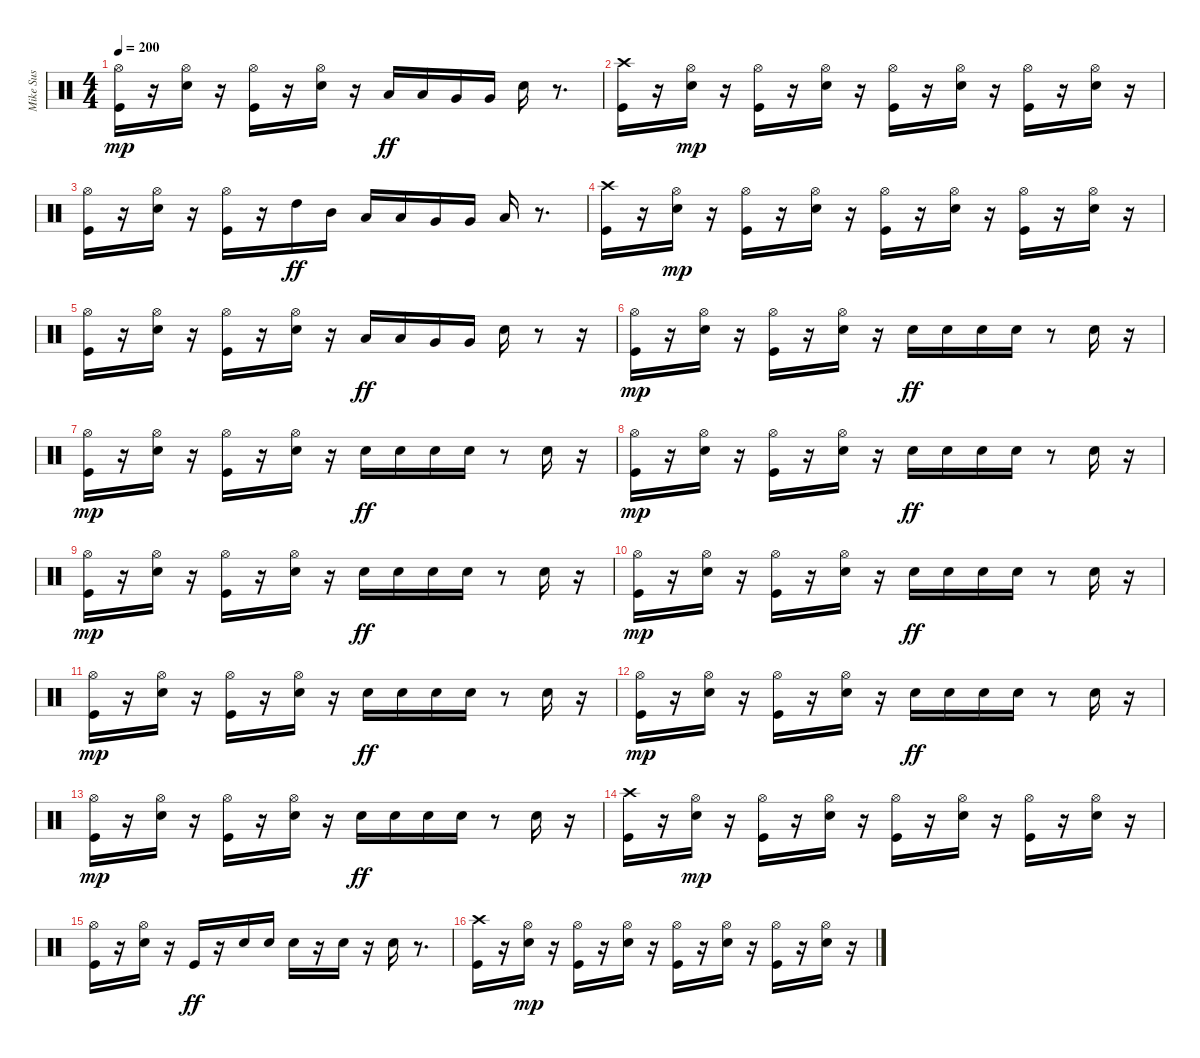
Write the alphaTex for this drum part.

\track ("Mike Sus" "Mike Sus") {instrument percussion}
\staff {score}
\articulation defaults
\ts (4 4)
\tempo 200
\clef neutral
\ks c
("Kick (hit)" "Hi-Hat (open)").16{dy mp} r.16 ("Snare (hit) 2" "Hi-Hat (open)").16 r.16 ("Kick (hit)" "Hi-Hat (open)").16 r.16 ("Snare (hit) 2" "Hi-Hat (open)").16 r.16 "Low Tom (hit)".16{dy ff} "Low Tom (hit)".16 "Very Low Tom (hit)".16 "Very Low Tom (hit)".16 "Snare (hit) 2".16 r.8{d} |
("Kick (hit)" "Crash high (hit)").16 r.16 ("Snare (hit) 2" "Hi-Hat (open)").16{dy mp} r.16 ("Kick (hit)" "Hi-Hat (open)").16 r.16 ("Snare (hit) 2" "Hi-Hat (open)").16 r.16 ("Kick (hit)" "Hi-Hat (open)").16 r.16 ("Snare (hit) 2" "Hi-Hat (open)").16 r.16 ("Kick (hit)" "Hi-Hat (open)").16 r.16 ("Snare (hit) 2" "Hi-Hat (open)").16 r.16 |
("Kick (hit)" "Hi-Hat (open)").16 r.16 ("Snare (hit) 2" "Hi-Hat (open)").16 r.16 ("Kick (hit)" "Hi-Hat (open)").16 r.16 "High Tom (hit)".16{dy ff} "Mid Tom (hit)".16 "Low Tom (hit)".16 "Low Tom (hit)".16 "Very Low Tom (hit)".16 "Very Low Tom (hit)".16 "Low Floor Tom (hit)".16 r.8{d} |
("Kick (hit)" "Crash high (hit)").16 r.16 ("Snare (hit) 2" "Hi-Hat (open)").16{dy mp} r.16 ("Kick (hit)" "Hi-Hat (open)").16 r.16 ("Snare (hit) 2" "Hi-Hat (open)").16 r.16 ("Kick (hit)" "Hi-Hat (open)").16 r.16 ("Snare (hit) 2" "Hi-Hat (open)").16 r.16 ("Kick (hit)" "Hi-Hat (open)").16 r.16 ("Snare (hit) 2" "Hi-Hat (open)").16 r.16 |
("Kick (hit)" "Hi-Hat (open)").16 r.16 ("Snare (hit) 2" "Hi-Hat (open)").16 r.16 ("Kick (hit)" "Hi-Hat (open)").16 r.16 ("Snare (hit) 2" "Hi-Hat (open)").16 r.16 "Low Tom (hit)".16{dy ff} "Low Tom (hit)".16 "Very Low Tom (hit)".16 "Very Low Tom (hit)".16 "Snare (hit) 2".16 r.8 r.16 |
("Kick (hit)" "Hi-Hat (open)").16{dy mp} r.16 ("Snare (hit) 2" "Hi-Hat (open)").16 r.16 ("Kick (hit)" "Hi-Hat (open)").16 r.16 ("Snare (hit) 2" "Hi-Hat (open)").16 r.16 "Snare (hit) 2".16{dy ff} "Snare (hit) 2".16 "Snare (hit) 2".16 "Snare (hit) 2".16 r.8 "Snare (hit) 2".16 r.16 |
("Kick (hit)" "Hi-Hat (open)").16{dy mp} r.16 ("Snare (hit) 2" "Hi-Hat (open)").16 r.16 ("Kick (hit)" "Hi-Hat (open)").16 r.16 ("Snare (hit) 2" "Hi-Hat (open)").16 r.16 "Snare (hit) 2".16{dy ff} "Snare (hit) 2".16 "Snare (hit) 2".16 "Snare (hit) 2".16 r.8 "Snare (hit) 2".16 r.16 |
("Kick (hit)" "Hi-Hat (open)").16{dy mp} r.16 ("Snare (hit) 2" "Hi-Hat (open)").16 r.16 ("Kick (hit)" "Hi-Hat (open)").16 r.16 ("Snare (hit) 2" "Hi-Hat (open)").16 r.16 "Snare (hit) 2".16{dy ff} "Snare (hit) 2".16 "Snare (hit) 2".16 "Snare (hit) 2".16 r.8 "Snare (hit) 2".16 r.16 |
("Kick (hit)" "Hi-Hat (open)").16{dy mp} r.16 ("Snare (hit) 2" "Hi-Hat (open)").16 r.16 ("Kick (hit)" "Hi-Hat (open)").16 r.16 ("Snare (hit) 2" "Hi-Hat (open)").16 r.16 "Snare (hit) 2".16{dy ff} "Snare (hit) 2".16 "Snare (hit) 2".16 "Snare (hit) 2".16 r.8 "Snare (hit) 2".16 r.16 |
("Kick (hit)" "Hi-Hat (open)").16{dy mp} r.16 ("Snare (hit) 2" "Hi-Hat (open)").16 r.16 ("Kick (hit)" "Hi-Hat (open)").16 r.16 ("Snare (hit) 2" "Hi-Hat (open)").16 r.16 "Snare (hit) 2".16{dy ff} "Snare (hit) 2".16 "Snare (hit) 2".16 "Snare (hit) 2".16 r.8 "Snare (hit) 2".16 r.16 |
("Kick (hit)" "Hi-Hat (open)").16{dy mp} r.16 ("Snare (hit) 2" "Hi-Hat (open)").16 r.16 ("Kick (hit)" "Hi-Hat (open)").16 r.16 ("Snare (hit) 2" "Hi-Hat (open)").16 r.16 "Snare (hit) 2".16{dy ff} "Snare (hit) 2".16 "Snare (hit) 2".16 "Snare (hit) 2".16 r.8 "Snare (hit) 2".16 r.16 |
("Kick (hit)" "Hi-Hat (open)").16{dy mp} r.16 ("Snare (hit) 2" "Hi-Hat (open)").16 r.16 ("Kick (hit)" "Hi-Hat (open)").16 r.16 ("Snare (hit) 2" "Hi-Hat (open)").16 r.16 "Snare (hit) 2".16{dy ff} "Snare (hit) 2".16 "Snare (hit) 2".16 "Snare (hit) 2".16 r.8 "Snare (hit) 2".16 r.16 |
("Kick (hit)" "Hi-Hat (open)").16{dy mp} r.16 ("Snare (hit) 2" "Hi-Hat (open)").16 r.16 ("Kick (hit)" "Hi-Hat (open)").16 r.16 ("Snare (hit) 2" "Hi-Hat (open)").16 r.16 "Snare (hit) 2".16{dy ff} "Snare (hit) 2".16 "Snare (hit) 2".16 "Snare (hit) 2".16 r.8 "Snare (hit) 2".16 r.16 |
("Kick (hit)" "Crash high (hit)").16 r.16 ("Snare (hit) 2" "Hi-Hat (open)").16{dy mp} r.16 ("Kick (hit)" "Hi-Hat (open)").16 r.16 ("Snare (hit) 2" "Hi-Hat (open)").16 r.16 ("Kick (hit)" "Hi-Hat (open)").16 r.16 ("Snare (hit) 2" "Hi-Hat (open)").16 r.16 ("Kick (hit)" "Hi-Hat (open)").16 r.16 ("Snare (hit) 2" "Hi-Hat (open)").16 r.16 |
("Kick (hit)" "Hi-Hat (open)").16 r.16 ("Snare (hit) 2" "Hi-Hat (open)").16 r.16 "Kick (hit)".16{dy ff} r.16 "Snare (hit) 2".16 "Snare (hit) 2".16 "Snare (hit) 2".16 r.16 "Snare (hit) 2".16 r.16 "Snare (hit) 2".16 r.8{d} |
("Kick (hit)" "Crash high (hit)").16 r.16 ("Snare (hit) 2" "Hi-Hat (open)").16{dy mp} r.16 ("Kick (hit)" "Hi-Hat (open)").16 r.16 ("Snare (hit) 2" "Hi-Hat (open)").16 r.16 ("Kick (hit)" "Hi-Hat (open)").16 r.16 ("Snare (hit) 2" "Hi-Hat (open)").16 r.16 ("Kick (hit)" "Hi-Hat (open)").16 r.16 ("Snare (hit) 2" "Hi-Hat (open)").16 r.16
